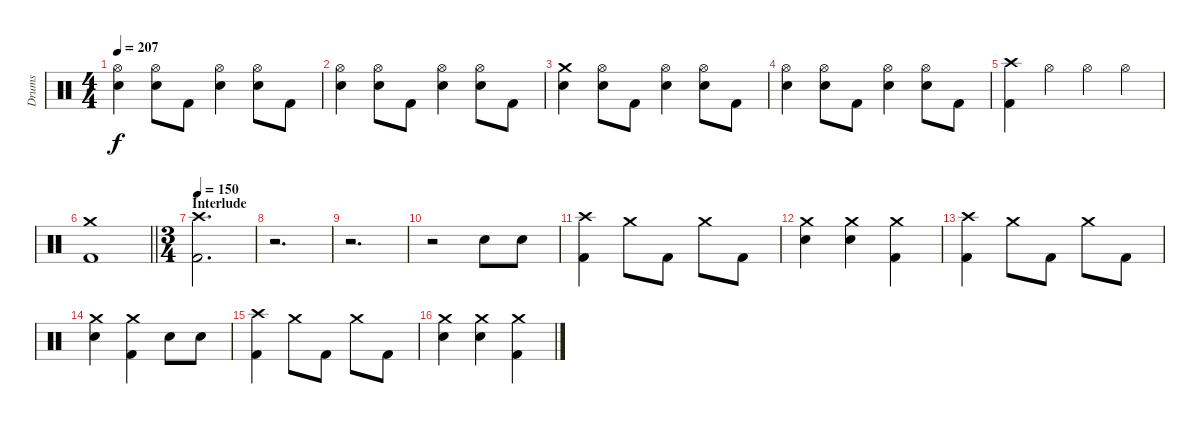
\track ("Drums" "Drums") {instrument percussion}
\staff {score}
\articulation defaults
\ts (4 4)
\tempo 207
\clef neutral
\ks c
("Hi-Hat (open)" "Snare (hit) 2").4{dy f} ("Hi-Hat (open)" "Snare (hit) 2").8 "Kick (hit) 2".8 ("Hi-Hat (open)" "Snare (hit) 2").4 ("Hi-Hat (open)" "Snare (hit) 2").8 "Kick (hit) 2".8 |
("Hi-Hat (open)" "Snare (hit) 2").4 ("Hi-Hat (open)" "Snare (hit) 2").8 "Kick (hit) 2".8 ("Hi-Hat (open)" "Snare (hit) 2").4 ("Hi-Hat (open)" "Snare (hit) 2").8 "Kick (hit) 2".8 |
("Crash medium (hit)" "Snare (hit) 2").4 ("Hi-Hat (open)" "Snare (hit) 2").8 "Kick (hit) 2".8 ("Hi-Hat (open)" "Snare (hit) 2").4 ("Hi-Hat (open)" "Snare (hit) 2").8 "Kick (hit) 2".8 |
("Hi-Hat (open)" "Snare (hit) 2").4 ("Hi-Hat (open)" "Snare (hit) 2").8 "Kick (hit) 2".8 ("Hi-Hat (open)" "Snare (hit) 2").4 ("Hi-Hat (open)" "Snare (hit) 2").8 "Kick (hit) 2".8 |
("Crash high (hit)" "Kick (hit) 2").4 "Hi-Hat (open)".4 "Hi-Hat (open)".4 "Hi-Hat (open)".4 |
\barLineRight lightlight
("Crash medium (hit)" "Kick (hit) 2").1 |
\ts (3 4)
\section ("" "Interlude")
\tempo 150
("Crash high (hit)" "Kick (hit) 2").2{d} |
r.2{d} |
r.2{d} |
r.2 "Snare (hit) 2".8 "Snare (hit) 2".8 |
("Crash high (hit)" "Kick (hit) 2").4 "Crash medium (hit)".8 "Kick (hit) 2".8 "Crash medium (hit)".8 "Kick (hit) 2".8 |
("Crash medium (hit)" "Snare (hit) 2").4 ("Crash medium (hit)" "Snare (hit) 2").4 ("Crash medium (hit)" "Kick (hit) 2").4 |
("Crash high (hit)" "Kick (hit) 2").4 "Crash medium (hit)".8 "Kick (hit) 2".8 "Crash medium (hit)".8 "Kick (hit) 2".8 |
("Crash medium (hit)" "Snare (hit) 2").4 ("Crash medium (hit)" "Kick (hit) 2").4 "Snare (hit) 2".8 "Snare (hit) 2".8 |
("Crash high (hit)" "Kick (hit) 2").4 "Crash medium (hit)".8 "Kick (hit) 2".8 "Crash medium (hit)".8 "Kick (hit) 2".8 |
("Crash medium (hit)" "Snare (hit) 2").4 ("Crash medium (hit)" "Snare (hit) 2").4 ("Crash medium (hit)" "Kick (hit) 2").4
